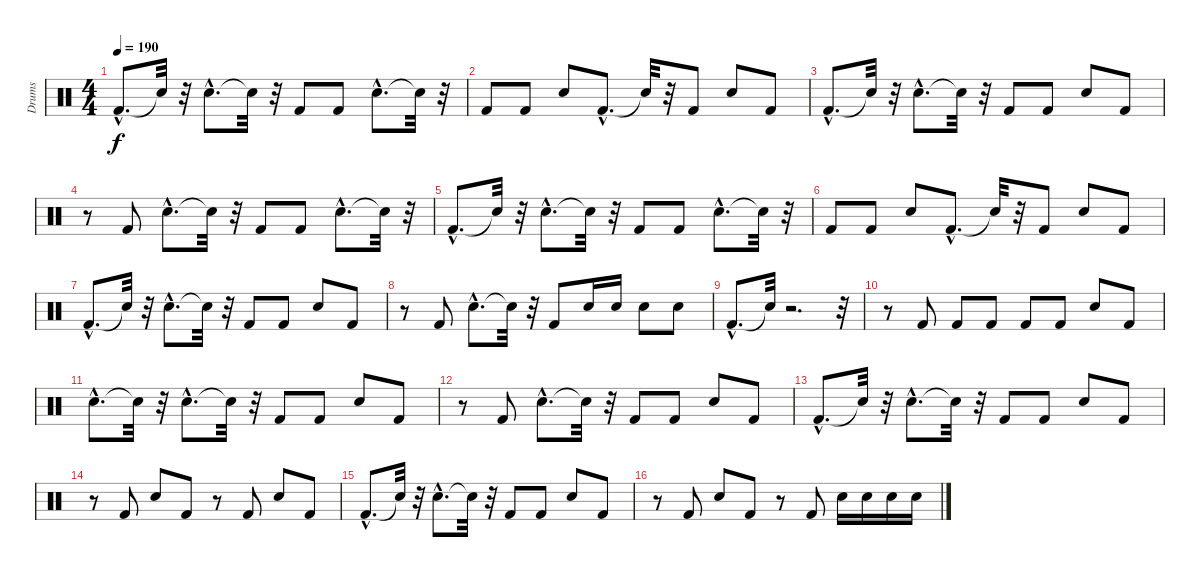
\track ("Drums" "Drums") {instrument percussion}
\staff {score}
\articulation defaults
\ts (4 4)
\tempo 190
\clef neutral
\ks c "Kick (hit) 2"{hac}.8{d dy f} "Snare (hit)"{t}.32
r.32 "Electric Snare (hit)"{hac}.8{d} "Snare (hit)"{t}.32 r.32 "Kick (hit) 2".8 "Kick (hit) 2".8 "Electric Snare (hit)"{hac}.8{d} "Snare (hit)"{t}.32 r.32 |
"Kick (hit) 2".8 "Kick (hit) 2".8 "Electric Snare (hit)".8 "Kick (hit) 2"{hac}.8{d} "Snare (hit)"{t}.32 r.32 "Kick (hit) 2".8 "Electric Snare (hit)".8 "Kick (hit) 2".8 |
"Kick (hit) 2"{hac}.8{d} "Snare (hit)"{t}.32 r.32 "Electric Snare (hit)"{hac}.8{d} "Snare (hit)"{t}.32 r.32 "Kick (hit) 2".8 "Kick (hit) 2".8 "Electric Snare (hit)".8 "Kick (hit) 2".8 |
r.8 "Kick (hit) 2".8 "Electric Snare (hit)"{hac}.8{d} "Snare (hit)"{t}.32 r.32 "Kick (hit) 2".8 "Kick (hit) 2".8 "Electric Snare (hit)"{hac}.8{d} "Snare (hit)"{t}.32 r.32 |
"Kick (hit) 2"{hac}.8{d} "Snare (hit)"{t}.32 r.32 "Electric Snare (hit)"{hac}.8{d} "Snare (hit)"{t}.32 r.32 "Kick (hit) 2".8 "Kick (hit) 2".8 "Electric Snare (hit)"{hac}.8{d} "Snare (hit)"{t}.32 r.32 |
"Kick (hit) 2".8 "Kick (hit) 2".8 "Electric Snare (hit)".8 "Kick (hit) 2"{hac}.8{d} "Snare (hit)"{t}.32 r.32 "Kick (hit) 2".8 "Electric Snare (hit)".8 "Kick (hit) 2".8 |
"Kick (hit) 2"{hac}.8{d} "Snare (hit)"{t}.32 r.32 "Electric Snare (hit)"{hac}.8{d} "Snare (hit)"{t}.32 r.32 "Kick (hit) 2".8 "Kick (hit) 2".8 "Electric Snare (hit)".8 "Kick (hit) 2".8 |
r.8 "Kick (hit) 2".8 "Electric Snare (hit)"{hac}.8{d} "Snare (hit)"{t}.32 r.32 "Kick (hit) 2".8 "Electric Snare (hit)".16 "Electric Snare (hit)".16 "Electric Snare (hit)".8 "Electric Snare (hit)".8 |
"Kick (hit) 2"{hac}.8{d} "Snare (hit)"{t}.32 r.2{d} r.32 |
r.8 "Kick (hit) 2".8 "Kick (hit) 2".8 "Kick (hit) 2".8 "Kick (hit) 2".8 "Kick (hit) 2".8 "Electric Snare (hit)".8 "Kick (hit) 2".8 |
"Electric Snare (hit)"{hac}.8{d} "Snare (hit)"{t}.32 r.32 "Electric Snare (hit)"{hac}.8{d} "Snare (hit)"{t}.32 r.32 "Kick (hit) 2".8 "Kick (hit) 2".8 "Electric Snare (hit)".8 "Kick (hit) 2".8 |
r.8 "Kick (hit) 2".8 "Electric Snare (hit)"{hac}.8{d} "Snare (hit)"{t}.32 r.32 "Kick (hit) 2".8 "Kick (hit) 2".8 "Electric Snare (hit)".8 "Kick (hit) 2".8 |
"Kick (hit) 2"{hac}.8{d} "Snare (hit)"{t}.32 r.32 "Electric Snare (hit)"{hac}.8{d} "Snare (hit)"{t}.32 r.32 "Kick (hit) 2".8 "Kick (hit) 2".8 "Electric Snare (hit)".8 "Kick (hit) 2".8 |
r.8 "Kick (hit) 2".8 "Electric Snare (hit)".8 "Kick (hit) 2".8 r.8 "Kick (hit) 2".8 "Electric Snare (hit)".8 "Kick (hit) 2".8 |
"Kick (hit) 2"{hac}.8{d} "Snare (hit)"{t}.32 r.32 "Electric Snare (hit)"{hac}.8{d} "Snare (hit)"{t}.32 r.32 "Kick (hit) 2".8 "Kick (hit) 2".8 "Electric Snare (hit)".8 "Kick (hit) 2".8 |
r.8 "Kick (hit) 2".8 "Electric Snare (hit)".8 "Kick (hit) 2".8 r.8 "Kick (hit) 2".8 "Electric Snare (hit)".16 "Electric Snare (hit)".16 "Electric Snare (hit)".16 "Electric Snare (hit)".16
